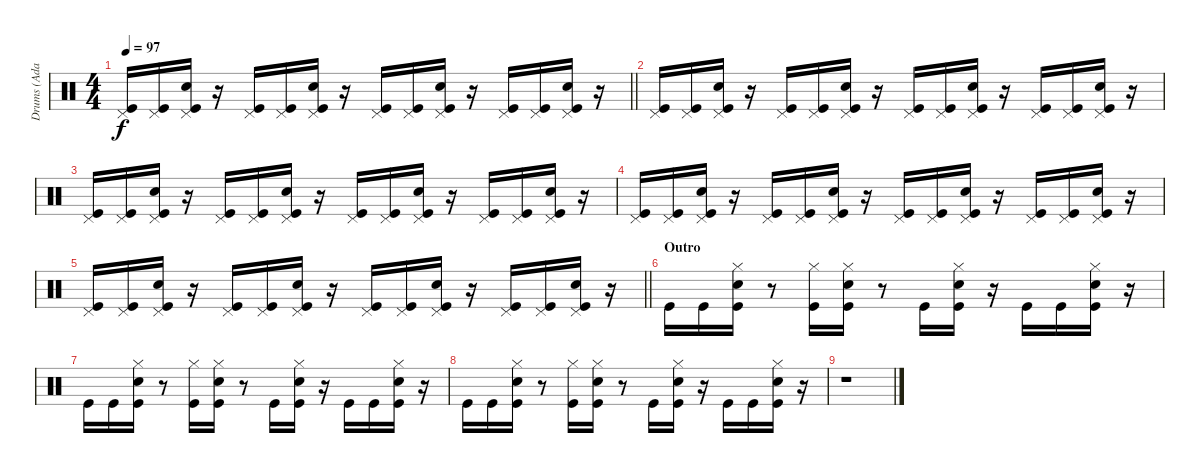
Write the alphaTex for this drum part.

\track ("Drums (Adam)" "Drums (Ada") {instrument percussion}
\staff {score}
\articulation defaults
\ts (4 4)
\tempo 97
\clef neutral
\barLineRight lightlight
\ks c
("Kick (hit)" "Pedal Hi-Hat (hit)").16{dy f} ("Kick (hit)" "Pedal Hi-Hat (hit)").16 ("Kick (hit)" "Pedal Hi-Hat (hit)" "Snare (hit) 2").16 r.16 ("Kick (hit)" "Pedal Hi-Hat (hit)").16 ("Kick (hit)" "Pedal Hi-Hat (hit)").16 ("Kick (hit)" "Pedal Hi-Hat (hit)" "Snare (hit) 2").16 r.16 ("Kick (hit)" "Pedal Hi-Hat (hit)").16 ("Kick (hit)" "Pedal Hi-Hat (hit)").16 ("Kick (hit)" "Pedal Hi-Hat (hit)" "Snare (hit) 2").16 r.16 ("Kick (hit)" "Pedal Hi-Hat (hit)").16 ("Kick (hit)" "Pedal Hi-Hat (hit)").16 ("Kick (hit)" "Pedal Hi-Hat (hit)" "Snare (hit) 2").16 r.16 |
("Kick (hit)" "Pedal Hi-Hat (hit)").16 ("Kick (hit)" "Pedal Hi-Hat (hit)").16 ("Kick (hit)" "Pedal Hi-Hat (hit)" "Snare (hit) 2").16 r.16 ("Kick (hit)" "Pedal Hi-Hat (hit)").16 ("Kick (hit)" "Pedal Hi-Hat (hit)").16 ("Kick (hit)" "Pedal Hi-Hat (hit)" "Snare (hit) 2").16 r.16 ("Kick (hit)" "Pedal Hi-Hat (hit)").16 ("Kick (hit)" "Pedal Hi-Hat (hit)").16 ("Kick (hit)" "Pedal Hi-Hat (hit)" "Snare (hit) 2").16 r.16 ("Kick (hit)" "Pedal Hi-Hat (hit)").16 ("Kick (hit)" "Pedal Hi-Hat (hit)").16 ("Kick (hit)" "Pedal Hi-Hat (hit)" "Snare (hit) 2").16 r.16 |
("Kick (hit)" "Pedal Hi-Hat (hit)").16 ("Kick (hit)" "Pedal Hi-Hat (hit)").16 ("Kick (hit)" "Pedal Hi-Hat (hit)" "Snare (hit) 2").16 r.16 ("Kick (hit)" "Pedal Hi-Hat (hit)").16 ("Kick (hit)" "Pedal Hi-Hat (hit)").16 ("Kick (hit)" "Pedal Hi-Hat (hit)" "Snare (hit) 2").16 r.16 ("Kick (hit)" "Pedal Hi-Hat (hit)").16 ("Kick (hit)" "Pedal Hi-Hat (hit)").16 ("Kick (hit)" "Pedal Hi-Hat (hit)" "Snare (hit) 2").16 r.16 ("Kick (hit)" "Pedal Hi-Hat (hit)").16 ("Kick (hit)" "Pedal Hi-Hat (hit)").16 ("Kick (hit)" "Pedal Hi-Hat (hit)" "Snare (hit) 2").16 r.16 |
("Kick (hit)" "Pedal Hi-Hat (hit)").16 ("Kick (hit)" "Pedal Hi-Hat (hit)").16 ("Kick (hit)" "Pedal Hi-Hat (hit)" "Snare (hit) 2").16 r.16 ("Kick (hit)" "Pedal Hi-Hat (hit)").16 ("Kick (hit)" "Pedal Hi-Hat (hit)").16 ("Kick (hit)" "Pedal Hi-Hat (hit)" "Snare (hit) 2").16 r.16 ("Kick (hit)" "Pedal Hi-Hat (hit)").16 ("Kick (hit)" "Pedal Hi-Hat (hit)").16 ("Kick (hit)" "Pedal Hi-Hat (hit)" "Snare (hit) 2").16 r.16 ("Kick (hit)" "Pedal Hi-Hat (hit)").16 ("Kick (hit)" "Pedal Hi-Hat (hit)").16 ("Kick (hit)" "Pedal Hi-Hat (hit)" "Snare (hit) 2").16 r.16 |
\barLineRight lightlight
("Kick (hit)" "Pedal Hi-Hat (hit)").16 ("Kick (hit)" "Pedal Hi-Hat (hit)").16 ("Kick (hit)" "Pedal Hi-Hat (hit)" "Snare (hit) 2").16 r.16 ("Kick (hit)" "Pedal Hi-Hat (hit)").16 ("Kick (hit)" "Pedal Hi-Hat (hit)").16 ("Kick (hit)" "Pedal Hi-Hat (hit)" "Snare (hit) 2").16 r.16 ("Kick (hit)" "Pedal Hi-Hat (hit)").16 ("Kick (hit)" "Pedal Hi-Hat (hit)").16 ("Kick (hit)" "Pedal Hi-Hat (hit)" "Snare (hit) 2").16 r.16 ("Kick (hit)" "Pedal Hi-Hat (hit)").16 ("Kick (hit)" "Pedal Hi-Hat (hit)").16 ("Kick (hit)" "Pedal Hi-Hat (hit)" "Snare (hit) 2").16 r.16 |
\section ("" "Outro")
"Kick (hit)".16 "Kick (hit)".16 ("Kick (hit)" "Snare (hit) 2" "Hi-Hat (closed)").16 r.8 ("Kick (hit)" "Hi-Hat (closed)").16 ("Kick (hit)" "Snare (hit) 2" "Hi-Hat (closed)").16 r.8 "Kick (hit)".16 ("Kick (hit)" "Snare (hit) 2" "Hi-Hat (closed)").16 r.16 "Kick (hit)".16 "Kick (hit)".16 ("Kick (hit)" "Snare (hit) 2" "Hi-Hat (closed)").16 r.16 |
"Kick (hit)".16 "Kick (hit)".16 ("Kick (hit)" "Snare (hit) 2" "Hi-Hat (closed)").16 r.8 ("Kick (hit)" "Hi-Hat (closed)").16 ("Kick (hit)" "Snare (hit) 2" "Hi-Hat (closed)").16 r.8 "Kick (hit)".16 ("Kick (hit)" "Snare (hit) 2" "Hi-Hat (closed)").16 r.16 "Kick (hit)".16 "Kick (hit)".16 ("Kick (hit)" "Snare (hit) 2" "Hi-Hat (closed)").16 r.16 |
"Kick (hit)".16 "Kick (hit)".16 ("Kick (hit)" "Snare (hit) 2" "Hi-Hat (closed)").16 r.8 ("Kick (hit)" "Hi-Hat (closed)").16 ("Kick (hit)" "Snare (hit) 2" "Hi-Hat (closed)").16 r.8 "Kick (hit)".16 ("Kick (hit)" "Snare (hit) 2" "Hi-Hat (closed)").16 r.16 "Kick (hit)".16 "Kick (hit)".16 ("Kick (hit)" "Snare (hit) 2" "Hi-Hat (closed)").16 r.16 |
r.1
